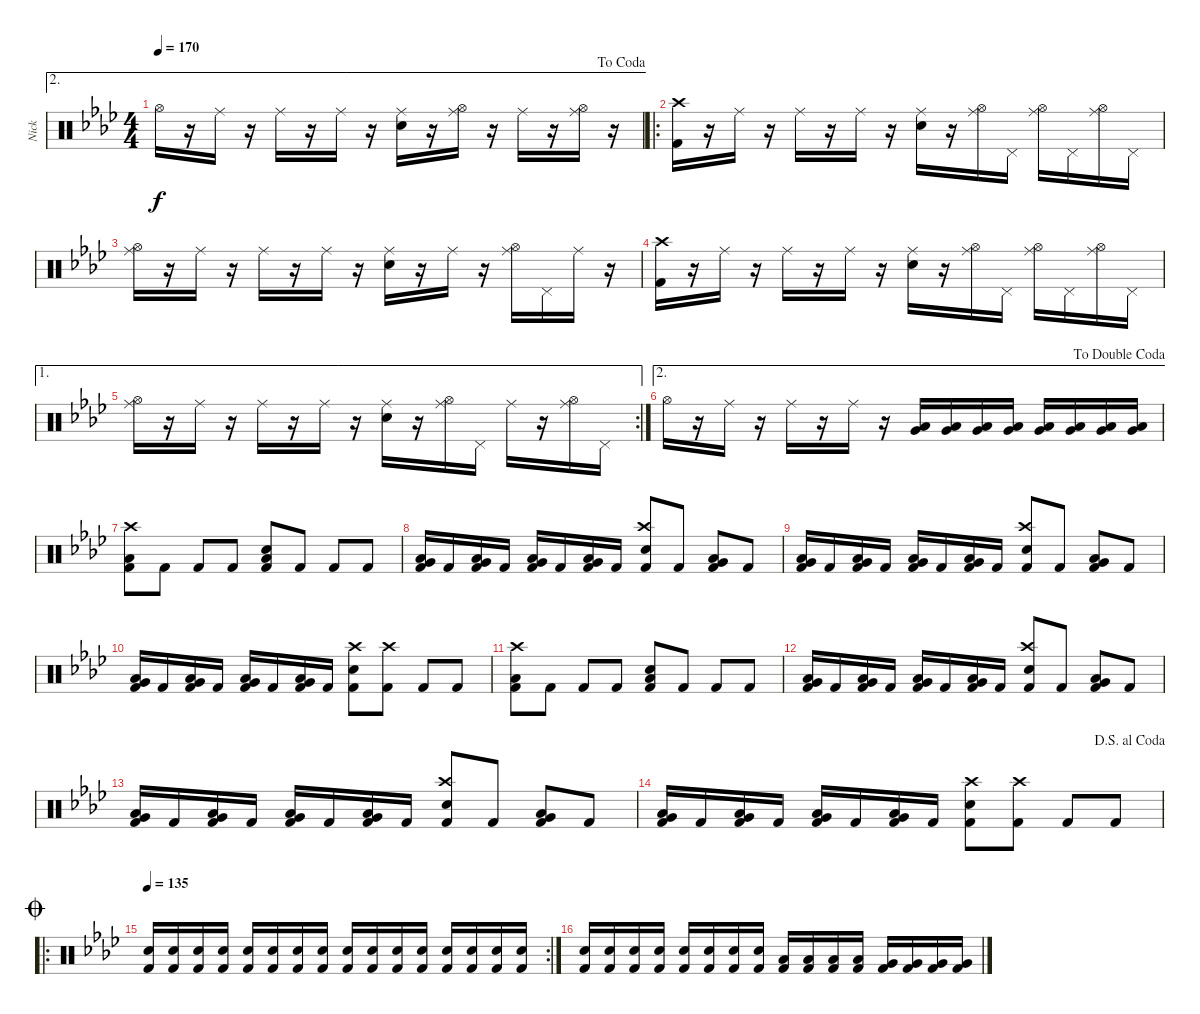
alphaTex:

\track ("Nick" "Nick") {instrument percussion}
\staff {score}
\articulation defaults
\ae 2
\ts (4 4)
\jump dacoda
\tempo 170
\clef neutral
\ks ab "Hi-Hat (open)".16{dy f}
r.16 "Ride (middle)".16 r.16 "Ride (middle)".16 r.16 "Ride (middle)".16 r.16 ("Ride (middle)" "Snare (hit) 2").16 r.16 ("Hi-Hat (open)" "Ride (middle)").16 r.16 "Ride (middle)".16 r.16 ("Hi-Hat (open)" "Ride (middle)").16 r.16 |
\ro
("Crash high (hit)" "Kick (hit) 2").16 r.16 "Ride (middle)".16 r.16 "Ride (middle)".16 r.16 "Ride (middle)".16 r.16 ("Ride (middle)" "Snare (hit) 2").16 r.16 ("Hi-Hat (open)" "Ride (middle)").16 "Pedal Hi-Hat (hit)".16 ("Hi-Hat (open)" "Ride (middle)").16 "Pedal Hi-Hat (hit)".16 ("Hi-Hat (open)" "Ride (middle)").16 "Pedal Hi-Hat (hit)".16 |
("Hi-Hat (open)" "Ride (middle)").16 r.16 "Ride (middle)".16 r.16 "Ride (middle)".16 r.16 "Ride (middle)".16 r.16 ("Ride (middle)" "Snare (hit) 2").16 r.16 "Ride (middle)".16 r.16 ("Hi-Hat (open)" "Ride (middle)").16 "Pedal Hi-Hat (hit)".16 "Ride (middle)".16 r.16 |
("Crash high (hit)" "Kick (hit) 2").16 r.16 "Ride (middle)".16 r.16 "Ride (middle)".16 r.16 "Ride (middle)".16 r.16 ("Ride (middle)" "Snare (hit) 2").16 r.16 ("Hi-Hat (open)" "Ride (middle)").16 "Pedal Hi-Hat (hit)".16 ("Hi-Hat (open)" "Ride (middle)").16 "Pedal Hi-Hat (hit)".16 ("Hi-Hat (open)" "Ride (middle)").16 "Pedal Hi-Hat (hit)".16 |
\ae 1
\rc 2
("Hi-Hat (open)" "Ride (middle)").16 r.16 "Ride (middle)".16 r.16 "Ride (middle)".16 r.16 "Ride (middle)".16 r.16 ("Ride (middle)" "Snare (hit) 2").16 r.16 ("Hi-Hat (open)" "Ride (middle)").16 "Pedal Hi-Hat (hit)".16 "Ride (middle)".16 r.16 ("Hi-Hat (open)" "Ride (middle)").16 "Pedal Hi-Hat (hit)".16 |
\ae 2
\jump dadoublecoda "Hi-Hat (open)".16
r.16 "Ride (middle)".16 r.16 "Ride (middle)".16 r.16 "Ride (middle)".16 r.16 ("Low Tom (hit)" "Very Low Tom (hit)").16 ("Low Tom (hit)" "Very Low Tom (hit)").16 ("Low Tom (hit)" "Very Low Tom (hit)").16 ("Low Tom (hit)" "Very Low Tom (hit)").16 ("Low Tom (hit)" "Very Low Tom (hit)").16 ("Low Tom (hit)" "Very Low Tom (hit)").16 ("Low Tom (hit)" "Very Low Tom (hit)").16 ("Low Tom (hit)" "Very Low Tom (hit)").16 |
("Crash high (hit)" "Low Floor Tom (hit)" "Kick (hit) 2").8 "Kick (hit) 2".8 "Kick (hit) 2".8 "Kick (hit) 2".8 ("Snare (hit) 2" "Low Floor Tom (hit)" "Kick (hit) 2").8 "Kick (hit) 2".8 "Kick (hit) 2".8 "Kick (hit) 2".8 |
("Very Low Tom (hit)" "Low Floor Tom (hit)" "Kick (hit) 2").16 "Kick (hit) 2".16 ("Very Low Tom (hit)" "Low Floor Tom (hit)" "Kick (hit) 2").16 "Kick (hit) 2".16 ("Very Low Tom (hit)" "Low Floor Tom (hit)" "Kick (hit) 2").16 "Kick (hit) 2".16 ("Very Low Tom (hit)" "Low Floor Tom (hit)" "Kick (hit) 2").16 "Kick (hit) 2".16 ("Crash high (hit)" "Snare (hit) 2" "Kick (hit) 2").8 "Kick (hit) 2".8 ("Very Low Tom (hit)" "Low Floor Tom (hit)" "Kick (hit) 2").8 "Kick (hit) 2".8 |
("Very Low Tom (hit)" "Low Floor Tom (hit)" "Kick (hit) 2").16 "Kick (hit) 2".16 ("Very Low Tom (hit)" "Low Floor Tom (hit)" "Kick (hit) 2").16 "Kick (hit) 2".16 ("Very Low Tom (hit)" "Low Floor Tom (hit)" "Kick (hit) 2").16 "Kick (hit) 2".16 ("Very Low Tom (hit)" "Low Floor Tom (hit)" "Kick (hit) 2").16 "Kick (hit) 2".16 ("Crash high (hit)" "Snare (hit) 2" "Kick (hit) 2").8 "Kick (hit) 2".8 ("Very Low Tom (hit)" "Low Floor Tom (hit)" "Kick (hit) 2").8 "Kick (hit) 2".8 |
("Very Low Tom (hit)" "Low Floor Tom (hit)" "Kick (hit) 2").16 "Kick (hit) 2".16 ("Very Low Tom (hit)" "Low Floor Tom (hit)" "Kick (hit) 2").16 "Kick (hit) 2".16 ("Very Low Tom (hit)" "Low Floor Tom (hit)" "Kick (hit) 2").16 "Kick (hit) 2".16 ("Very Low Tom (hit)" "Low Floor Tom (hit)" "Kick (hit) 2").16 "Kick (hit) 2".16 ("Crash high (hit)" "Snare (hit) 2" "Kick (hit) 2").8 ("Crash high (hit)" "Kick (hit) 2").8 "Kick (hit) 2".8 "Kick (hit) 2".8 |
("Crash high (hit)" "Low Floor Tom (hit)" "Kick (hit) 2").8 "Kick (hit) 2".8 "Kick (hit) 2".8 "Kick (hit) 2".8 ("Snare (hit) 2" "Low Floor Tom (hit)" "Kick (hit) 2").8 "Kick (hit) 2".8 "Kick (hit) 2".8 "Kick (hit) 2".8 |
("Very Low Tom (hit)" "Low Floor Tom (hit)" "Kick (hit) 2").16 "Kick (hit) 2".16 ("Very Low Tom (hit)" "Low Floor Tom (hit)" "Kick (hit) 2").16 "Kick (hit) 2".16 ("Very Low Tom (hit)" "Low Floor Tom (hit)" "Kick (hit) 2").16 "Kick (hit) 2".16 ("Very Low Tom (hit)" "Low Floor Tom (hit)" "Kick (hit) 2").16 "Kick (hit) 2".16 ("Crash high (hit)" "Snare (hit) 2" "Kick (hit) 2").8 "Kick (hit) 2".8 ("Very Low Tom (hit)" "Low Floor Tom (hit)" "Kick (hit) 2").8 "Kick (hit) 2".8 |
("Very Low Tom (hit)" "Low Floor Tom (hit)" "Kick (hit) 2").16 "Kick (hit) 2".16 ("Very Low Tom (hit)" "Low Floor Tom (hit)" "Kick (hit) 2").16 "Kick (hit) 2".16 ("Very Low Tom (hit)" "Low Floor Tom (hit)" "Kick (hit) 2").16 "Kick (hit) 2".16 ("Very Low Tom (hit)" "Low Floor Tom (hit)" "Kick (hit) 2").16 "Kick (hit) 2".16 ("Crash high (hit)" "Snare (hit) 2" "Kick (hit) 2").8 "Kick (hit) 2".8 ("Very Low Tom (hit)" "Low Floor Tom (hit)" "Kick (hit) 2").8 "Kick (hit) 2".8 |
\jump dalsegnoalcoda
("Very Low Tom (hit)" "Low Floor Tom (hit)" "Kick (hit) 2").16 "Kick (hit) 2".16 ("Very Low Tom (hit)" "Low Floor Tom (hit)" "Kick (hit) 2").16 "Kick (hit) 2".16 ("Very Low Tom (hit)" "Low Floor Tom (hit)" "Kick (hit) 2").16 "Kick (hit) 2".16 ("Very Low Tom (hit)" "Low Floor Tom (hit)" "Kick (hit) 2").16 "Kick (hit) 2".16 ("Crash high (hit)" "Snare (hit) 2" "Kick (hit) 2").8 ("Crash high (hit)" "Kick (hit) 2").8 "Kick (hit) 2".8 "Kick (hit) 2".8 |
\ro
\rc 2
\jump coda
\tempo 135
("Electric Snare (hit)" "Kick (hit) 2").16 ("Electric Snare (hit)" "Kick (hit) 2").16 ("Electric Snare (hit)" "Kick (hit) 2").16 ("Electric Snare (hit)" "Kick (hit) 2").16 ("Electric Snare (hit)" "Kick (hit) 2").16 ("Electric Snare (hit)" "Kick (hit) 2").16 ("Electric Snare (hit)" "Kick (hit) 2").16 ("Electric Snare (hit)" "Kick (hit) 2").16 ("Electric Snare (hit)" "Kick (hit) 2").16 ("Electric Snare (hit)" "Kick (hit) 2").16 ("Electric Snare (hit)" "Kick (hit) 2").16 ("Electric Snare (hit)" "Kick (hit) 2").16 ("Electric Snare (hit)" "Kick (hit) 2").16 ("Electric Snare (hit)" "Kick (hit) 2").16 ("Electric Snare (hit)" "Kick (hit) 2").16 ("Electric Snare (hit)" "Kick (hit) 2").16 |
("Electric Snare (hit)" "Kick (hit) 2").16 ("Electric Snare (hit)" "Kick (hit) 2").16 ("Electric Snare (hit)" "Kick (hit) 2").16 ("Electric Snare (hit)" "Kick (hit) 2").16 ("Electric Snare (hit)" "Kick (hit) 2").16 ("Electric Snare (hit)" "Kick (hit) 2").16 ("Electric Snare (hit)" "Kick (hit) 2").16 ("Electric Snare (hit)" "Kick (hit) 2").16 ("Low Tom (hit)" "Kick (hit) 2").16 ("Low Tom (hit)" "Kick (hit) 2").16 ("Low Tom (hit)" "Kick (hit) 2").16 ("Low Tom (hit)" "Kick (hit) 2").16 ("Very Low Tom (hit)" "Kick (hit) 2").16 ("Very Low Tom (hit)" "Kick (hit) 2").16 ("Very Low Tom (hit)" "Kick (hit) 2").16 ("Very Low Tom (hit)" "Kick (hit) 2").16
